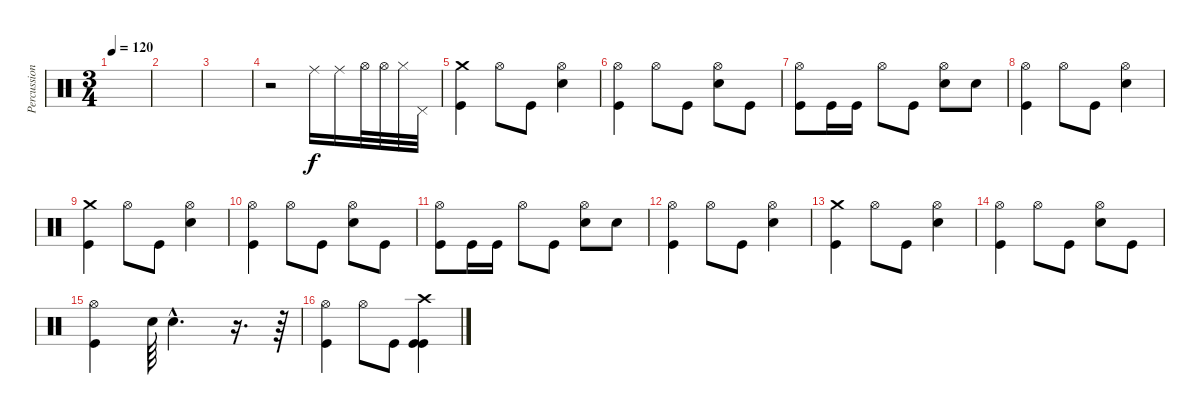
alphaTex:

\track ("Percussion" "Percussion") {instrument percussion}
\staff {score}
\articulation defaults
\ts (3 4)
\tempo 120
\clef neutral
\ks c
|
|
|
r.2 "Ride (middle)".16 "Ride (middle)".16 "Hi-Hat (open)".32 "Hi-Hat (open)".32 "Hi-Hat (closed)".32 "Pedal Hi-Hat (hit)".32 |
("Crash medium (hit)" "Kick (hit)").4 "Hi-Hat (open)".8 "Kick (hit)".8 ("Hi-Hat (open)" "Snare (hit) 2").4 |
("Hi-Hat (open)" "Kick (hit)").4 "Hi-Hat (open)".8 "Kick (hit)".8 ("Hi-Hat (open)" "Snare (hit) 2").8 "Kick (hit)".8 |
("Hi-Hat (open)" "Kick (hit)").8 "Kick (hit)".16 "Kick (hit)".16 "Hi-Hat (open)".8 "Kick (hit)".8 ("Hi-Hat (open)" "Snare (hit) 2").8 "Snare (hit) 2".8 |
("Hi-Hat (open)" "Kick (hit)").4 "Hi-Hat (open)".8 "Kick (hit)".8 ("Hi-Hat (open)" "Snare (hit) 2").4 |
("Crash medium (hit)" "Kick (hit)").4 "Hi-Hat (open)".8 "Kick (hit)".8 ("Hi-Hat (open)" "Snare (hit) 2").4 |
("Hi-Hat (open)" "Kick (hit)").4 "Hi-Hat (open)".8 "Kick (hit)".8 ("Hi-Hat (open)" "Snare (hit) 2").8 "Kick (hit)".8 |
("Hi-Hat (open)" "Kick (hit)").8 "Kick (hit)".16 "Kick (hit)".16 "Hi-Hat (open)".8 "Kick (hit)".8 ("Hi-Hat (open)" "Snare (hit) 2").8 "Snare (hit) 2".8 |
("Hi-Hat (open)" "Kick (hit)").4 "Hi-Hat (open)".8 "Kick (hit)".8 ("Hi-Hat (open)" "Snare (hit) 2").4 |
("Crash medium (hit)" "Kick (hit)").4 "Hi-Hat (open)".8 "Kick (hit)".8 ("Hi-Hat (open)" "Snare (hit) 2").4 |
("Hi-Hat (open)" "Kick (hit)").4 "Hi-Hat (open)".8 "Kick (hit)".8 ("Hi-Hat (open)" "Snare (hit) 2").8 "Kick (hit)".8 |
("Hi-Hat (open)" "Kick (hit)").4 "Snare (hit) 2".64 "Snare (hit) 2"{hac}.4{d} r.16{d} r.64 |
("Hi-Hat (open)" "Kick (hit)").4 "Hi-Hat (open)".8 "Kick (hit)".8 ("Crash high (hit)" "Kick (hit)" "Kick (hit)").4
